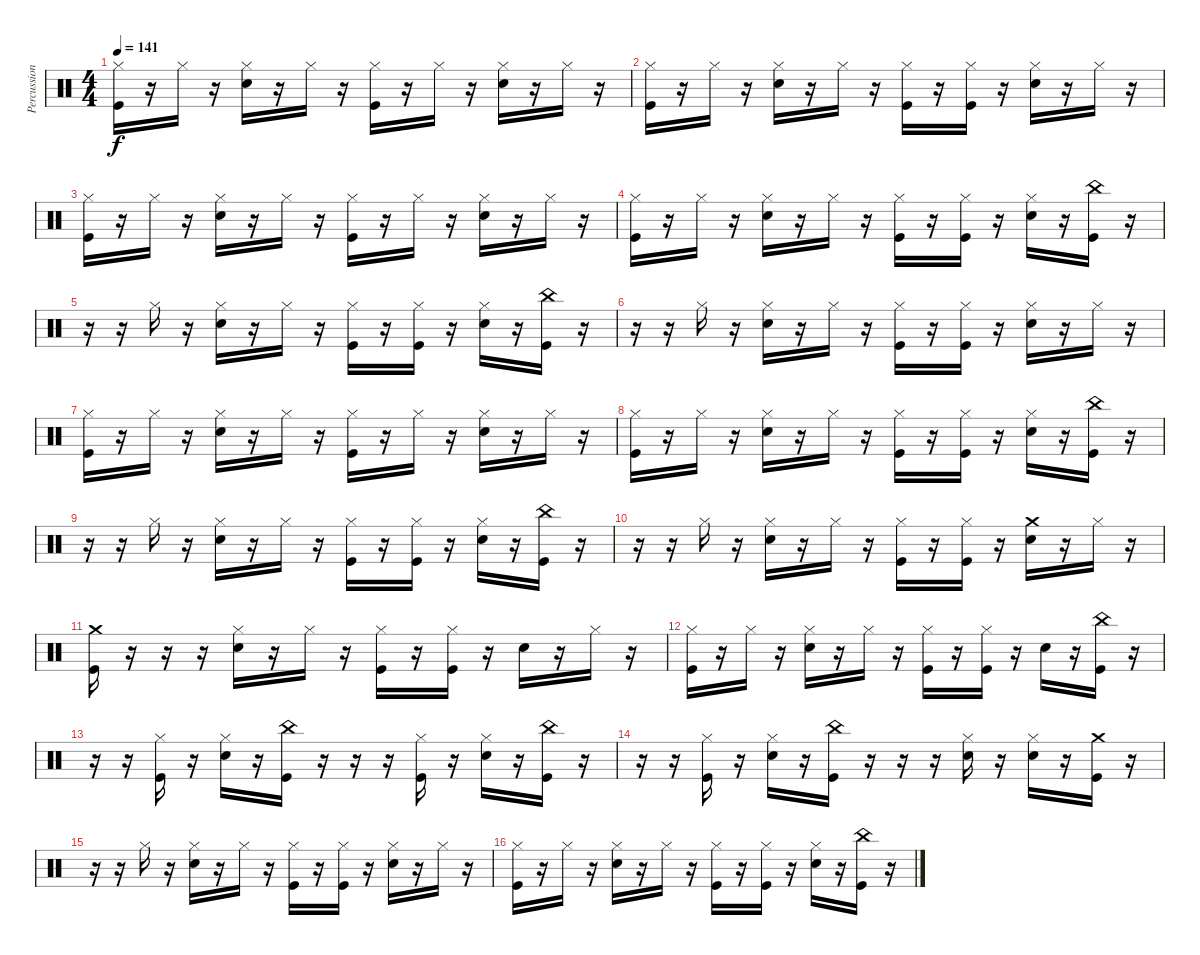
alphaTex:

\track ("Percussion" "Percussion") {instrument percussion}
\staff {score}
\articulation defaults
\ts (4 4)
\tempo 141
\clef neutral
\ks c
("Hi-Hat (closed)" "Kick (hit)").16{dy f} r.16 "Hi-Hat (closed)".16 r.16 ("Hi-Hat (closed)" "Electric Snare (hit)").16 r.16 "Hi-Hat (closed)".16 r.16 ("Hi-Hat (closed)" "Kick (hit)").16 r.16 "Hi-Hat (closed)".16 r.16 ("Hi-Hat (closed)" "Electric Snare (hit)").16 r.16 "Hi-Hat (closed)".16 r.16 |
("Hi-Hat (closed)" "Kick (hit)").16 r.16 "Hi-Hat (closed)".16 r.16 ("Hi-Hat (closed)" "Electric Snare (hit)").16 r.16 "Hi-Hat (closed)".16 r.16 ("Hi-Hat (closed)" "Kick (hit)").16 r.16 ("Hi-Hat (closed)" "Kick (hit)").16 r.16 ("Hi-Hat (closed)" "Electric Snare (hit)").16 r.16 "Hi-Hat (closed)".16 r.16 |
("Hi-Hat (closed)" "Kick (hit)").16 r.16 "Hi-Hat (closed)".16 r.16 ("Hi-Hat (closed)" "Electric Snare (hit)").16 r.16 "Hi-Hat (closed)".16 r.16 ("Hi-Hat (closed)" "Kick (hit)").16 r.16 "Hi-Hat (closed)".16 r.16 ("Hi-Hat (closed)" "Electric Snare (hit)").16 r.16 "Hi-Hat (closed)".16 r.16 |
("Hi-Hat (closed)" "Kick (hit)").16 r.16 "Hi-Hat (closed)".16 r.16 ("Hi-Hat (closed)" "Electric Snare (hit)").16 r.16 "Hi-Hat (closed)".16 r.16 ("Hi-Hat (closed)" "Kick (hit)").16 r.16 ("Hi-Hat (closed)" "Kick (hit)").16 r.16 ("Hi-Hat (closed)" "Electric Snare (hit)").16 r.16 ("China (hit)" "Kick (hit)").16 r.16 |
r.16 r.16 "Hi-Hat (closed)".16 r.16 ("Hi-Hat (closed)" "Electric Snare (hit)").16 r.16 "Hi-Hat (closed)".16 r.16 ("Hi-Hat (closed)" "Kick (hit)").16 r.16 ("Hi-Hat (closed)" "Kick (hit)").16 r.16 ("Hi-Hat (closed)" "Electric Snare (hit)").16 r.16 ("China (hit)" "Kick (hit)").16 r.16 |
r.16 r.16 "Hi-Hat (closed)".16 r.16 ("Hi-Hat (closed)" "Electric Snare (hit)").16 r.16 "Hi-Hat (closed)".16 r.16 ("Hi-Hat (closed)" "Kick (hit)").16 r.16 ("Hi-Hat (closed)" "Kick (hit)").16 r.16 ("Hi-Hat (closed)" "Electric Snare (hit)").16 r.16 "Hi-Hat (closed)".16 r.16 |
("Hi-Hat (closed)" "Kick (hit)").16 r.16 "Hi-Hat (closed)".16 r.16 ("Hi-Hat (closed)" "Electric Snare (hit)").16 r.16 "Hi-Hat (closed)".16 r.16 ("Hi-Hat (closed)" "Kick (hit)").16 r.16 "Hi-Hat (closed)".16 r.16 ("Hi-Hat (closed)" "Electric Snare (hit)").16 r.16 "Hi-Hat (closed)".16 r.16 |
("Hi-Hat (closed)" "Kick (hit)").16 r.16 "Hi-Hat (closed)".16 r.16 ("Hi-Hat (closed)" "Electric Snare (hit)").16 r.16 "Hi-Hat (closed)".16 r.16 ("Hi-Hat (closed)" "Kick (hit)").16 r.16 ("Hi-Hat (closed)" "Kick (hit)").16 r.16 ("Hi-Hat (closed)" "Electric Snare (hit)").16 r.16 ("China (hit)" "Kick (hit)").16 r.16 |
r.16 r.16 "Hi-Hat (closed)".16 r.16 ("Hi-Hat (closed)" "Electric Snare (hit)").16 r.16 "Hi-Hat (closed)".16 r.16 ("Hi-Hat (closed)" "Kick (hit)").16 r.16 ("Hi-Hat (closed)" "Kick (hit)").16 r.16 ("Hi-Hat (closed)" "Electric Snare (hit)").16 r.16 ("China (hit)" "Kick (hit)").16 r.16 |
r.16 r.16 "Hi-Hat (closed)".16 r.16 ("Hi-Hat (closed)" "Electric Snare (hit)").16 r.16 "Hi-Hat (closed)".16 r.16 ("Hi-Hat (closed)" "Kick (hit)").16 r.16 ("Hi-Hat (closed)" "Kick (hit)").16 r.16 ("Crash medium (hit)" "Electric Snare (hit)").16 r.16 "Hi-Hat (closed)".16 r.16 |
("Crash medium (hit)" "Kick (hit)").16 r.16 r.16 r.16 ("Hi-Hat (closed)" "Electric Snare (hit)").16 r.16 "Hi-Hat (closed)".16 r.16 ("Hi-Hat (closed)" "Kick (hit)").16 r.16 ("Hi-Hat (closed)" "Kick (hit)").16 r.16 "Electric Snare (hit)".16 r.16 "Hi-Hat (closed)".16 r.16 |
("Hi-Hat (closed)" "Kick (hit)").16 r.16 "Hi-Hat (closed)".16 r.16 ("Hi-Hat (closed)" "Electric Snare (hit)").16 r.16 "Hi-Hat (closed)".16 r.16 ("Hi-Hat (closed)" "Kick (hit)").16 r.16 ("Hi-Hat (closed)" "Kick (hit)").16 r.16 "Electric Snare (hit)".16 r.16 ("China (hit)" "Kick (hit)").16 r.16 |
r.16 r.16 ("Hi-Hat (closed)" "Kick (hit)").16 r.16 ("Hi-Hat (closed)" "Electric Snare (hit)").16 r.16 ("China (hit)" "Kick (hit)").16 r.16 r.16 r.16 ("Hi-Hat (closed)" "Kick (hit)").16 r.16 ("Hi-Hat (closed)" "Electric Snare (hit)").16 r.16 ("China (hit)" "Kick (hit)").16 r.16 |
r.16 r.16 ("Hi-Hat (closed)" "Kick (hit)").16 r.16 ("Hi-Hat (closed)" "Electric Snare (hit)").16 r.16 ("China (hit)" "Kick (hit)").16 r.16 r.16 r.16 ("Hi-Hat (closed)" "Electric Snare (hit)").16 r.16 ("Hi-Hat (closed)" "Electric Snare (hit)").16 r.16 ("Crash medium (hit)" "Kick (hit)").16 r.16 |
r.16 r.16 "Hi-Hat (closed)".16 r.16 ("Hi-Hat (closed)" "Electric Snare (hit)").16 r.16 "Hi-Hat (closed)".16 r.16 ("Hi-Hat (closed)" "Kick (hit)").16 r.16 ("Hi-Hat (closed)" "Kick (hit)").16 r.16 ("Hi-Hat (closed)" "Electric Snare (hit)").16 r.16 "Hi-Hat (closed)".16 r.16 |
("Hi-Hat (closed)" "Kick (hit)").16 r.16 "Hi-Hat (closed)".16 r.16 ("Hi-Hat (closed)" "Electric Snare (hit)").16 r.16 "Hi-Hat (closed)".16 r.16 ("Hi-Hat (closed)" "Kick (hit)").16 r.16 ("Hi-Hat (closed)" "Kick (hit)").16 r.16 ("Hi-Hat (closed)" "Electric Snare (hit)").16 r.16 ("China (hit)" "Kick (hit)").16 r.16
